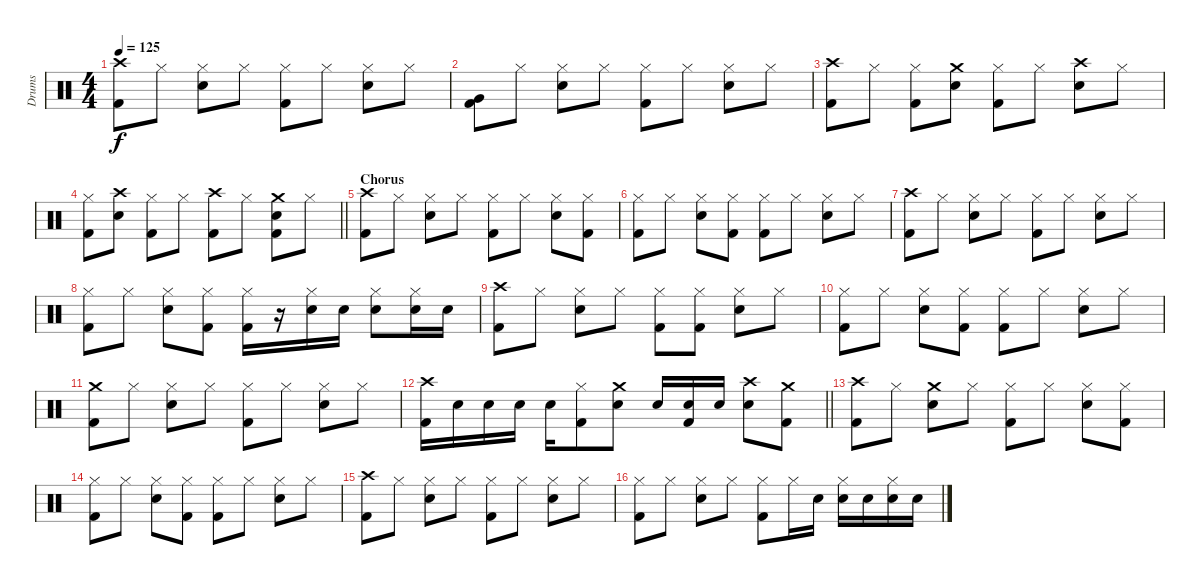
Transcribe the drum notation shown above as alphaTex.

\track ("Drums" "Drums") {instrument percussion}
\staff {score}
\articulation defaults
\ts (4 4)
\tempo 125
\clef neutral
\ks c
("Crash high (hit)" "Kick (hit) 2").8{dy f} "Hi-Hat (closed)".8 ("Hi-Hat (closed)" "Electric Snare (hit)").8 "Hi-Hat (closed)".8 ("Hi-Hat (closed)" "Kick (hit) 2").8 "Hi-Hat (closed)".8 ("Hi-Hat (closed)" "Electric Snare (hit)").8 "Hi-Hat (closed)".8 |
("Very Low Tom (hit)" "Kick (hit) 2").8 "Hi-Hat (closed)".8 ("Hi-Hat (closed)" "Electric Snare (hit)").8 "Hi-Hat (closed)".8 ("Hi-Hat (closed)" "Kick (hit) 2").8 "Hi-Hat (closed)".8 ("Hi-Hat (closed)" "Electric Snare (hit)").8 "Hi-Hat (closed)".8 |
("Crash high (hit)" "Kick (hit) 2").8 "Hi-Hat (closed)".8 ("Hi-Hat (closed)" "Kick (hit) 2").8 ("Crash medium (hit)" "Electric Snare (hit)").8 ("Hi-Hat (closed)" "Kick (hit) 2").8 "Hi-Hat (closed)".8 ("Crash high (hit)" "Electric Snare (hit)").8 "Hi-Hat (closed)".8 |
\barLineRight lightlight
("Hi-Hat (closed)" "Kick (hit) 2").8 ("Crash high (hit)" "Electric Snare (hit)").8 ("Hi-Hat (closed)" "Kick (hit) 2").8 "Hi-Hat (closed)".8 ("Crash high (hit)" "Kick (hit) 2").8 "Hi-Hat (closed)".8 ("Crash medium (hit)" "Electric Snare (hit)" "Kick (hit) 2").8 "Hi-Hat (closed)".8 |
\section ("" "Chorus")
("Crash high (hit)" "Kick (hit) 2").8 "Hi-Hat (closed)".8 ("Hi-Hat (closed)" "Electric Snare (hit)").8 "Hi-Hat (closed)".8 ("Hi-Hat (closed)" "Kick (hit) 2").8 "Hi-Hat (closed)".8 ("Hi-Hat (closed)" "Electric Snare (hit)").8 ("Hi-Hat (closed)" "Kick (hit) 2").8 |
("Hi-Hat (closed)" "Kick (hit) 2").8 "Hi-Hat (closed)".8 ("Hi-Hat (closed)" "Electric Snare (hit)").8 ("Hi-Hat (closed)" "Kick (hit) 2").8 ("Hi-Hat (closed)" "Kick (hit) 2").8 "Hi-Hat (closed)".8 ("Hi-Hat (closed)" "Electric Snare (hit)").8 "Hi-Hat (closed)".8 |
("Crash high (hit)" "Kick (hit) 2").8 "Hi-Hat (closed)".8 ("Hi-Hat (closed)" "Electric Snare (hit)").8 "Hi-Hat (closed)".8 ("Hi-Hat (closed)" "Kick (hit) 2").8 "Hi-Hat (closed)".8 ("Hi-Hat (closed)" "Electric Snare (hit)").8 "Hi-Hat (closed)".8 |
("Hi-Hat (closed)" "Kick (hit) 2").8 "Hi-Hat (closed)".8 ("Hi-Hat (closed)" "Electric Snare (hit)").8 ("Hi-Hat (closed)" "Kick (hit) 2").8 ("Hi-Hat (closed)" "Kick (hit) 2").16 r.16 ("Hi-Hat (closed)" "Electric Snare (hit)").16 "Electric Snare (hit)".16 ("Hi-Hat (closed)" "Electric Snare (hit)").8 ("Hi-Hat (closed)" "Electric Snare (hit)").16 "Electric Snare (hit)".16 |
("Crash high (hit)" "Kick (hit) 2").8 "Hi-Hat (closed)".8 ("Hi-Hat (closed)" "Electric Snare (hit)").8 "Hi-Hat (closed)".8 ("Hi-Hat (closed)" "Kick (hit) 2").8 ("Hi-Hat (closed)" "Kick (hit) 2").8 ("Hi-Hat (closed)" "Electric Snare (hit)").8 "Hi-Hat (closed)".8 |
("Hi-Hat (closed)" "Kick (hit) 2").8 "Hi-Hat (closed)".8 ("Hi-Hat (closed)" "Electric Snare (hit)").8 ("Hi-Hat (closed)" "Kick (hit) 2").8 ("Hi-Hat (closed)" "Kick (hit) 2").8 "Hi-Hat (closed)".8 ("Hi-Hat (closed)" "Electric Snare (hit)").8 "Hi-Hat (closed)".8 |
("Crash medium (hit)" "Kick (hit) 2").8 "Hi-Hat (closed)".8 ("Hi-Hat (closed)" "Electric Snare (hit)").8 "Hi-Hat (closed)".8 ("Hi-Hat (closed)" "Kick (hit) 2").8 "Hi-Hat (closed)".8 ("Hi-Hat (closed)" "Electric Snare (hit)").8 "Hi-Hat (closed)".8 |
\barLineRight lightlight
("Crash high (hit)" "Kick (hit) 2").16 "Electric Snare (hit)".16 "Electric Snare (hit)".16 "Electric Snare (hit)".16 "Electric Snare (hit)".16 ("Hi-Hat (closed)" "Kick (hit) 2").8 ("Crash medium (hit)" "Electric Snare (hit)").8 "Electric Snare (hit)".16 ("Electric Snare (hit)" "Kick (hit) 2").16 "Electric Snare (hit)".16 ("Crash high (hit)" "Electric Snare (hit)").8 ("Crash medium (hit)" "Kick (hit) 2").8 |
("Crash high (hit)" "Kick (hit) 2").8 "Hi-Hat (closed)".8 ("Crash medium (hit)" "Electric Snare (hit)").8 "Hi-Hat (closed)".8 ("Hi-Hat (closed)" "Kick (hit) 2").8 "Hi-Hat (closed)".8 ("Hi-Hat (closed)" "Electric Snare (hit)").8 ("Hi-Hat (closed)" "Kick (hit) 2").8 |
("Hi-Hat (closed)" "Kick (hit) 2").8 "Hi-Hat (closed)".8 ("Hi-Hat (closed)" "Electric Snare (hit)").8 ("Hi-Hat (closed)" "Kick (hit) 2").8 ("Hi-Hat (closed)" "Kick (hit) 2").8 "Hi-Hat (closed)".8 ("Hi-Hat (closed)" "Electric Snare (hit)").8 "Hi-Hat (closed)".8 |
("Crash high (hit)" "Kick (hit) 2").8 "Hi-Hat (closed)".8 ("Hi-Hat (closed)" "Electric Snare (hit)").8 "Hi-Hat (closed)".8 ("Hi-Hat (closed)" "Kick (hit) 2").8 "Hi-Hat (closed)".8 ("Hi-Hat (closed)" "Electric Snare (hit)").8 "Hi-Hat (closed)".8 |
("Hi-Hat (closed)" "Kick (hit) 2").8 "Hi-Hat (closed)".8 ("Hi-Hat (closed)" "Electric Snare (hit)").8 "Hi-Hat (closed)".8 ("Hi-Hat (closed)" "Kick (hit) 2").8 "Hi-Hat (closed)".16 "Electric Snare (hit)".16 ("Hi-Hat (closed)" "Electric Snare (hit)").16 "Electric Snare (hit)".16 ("Hi-Hat (closed)" "Electric Snare (hit)").16 "Electric Snare (hit)".16
